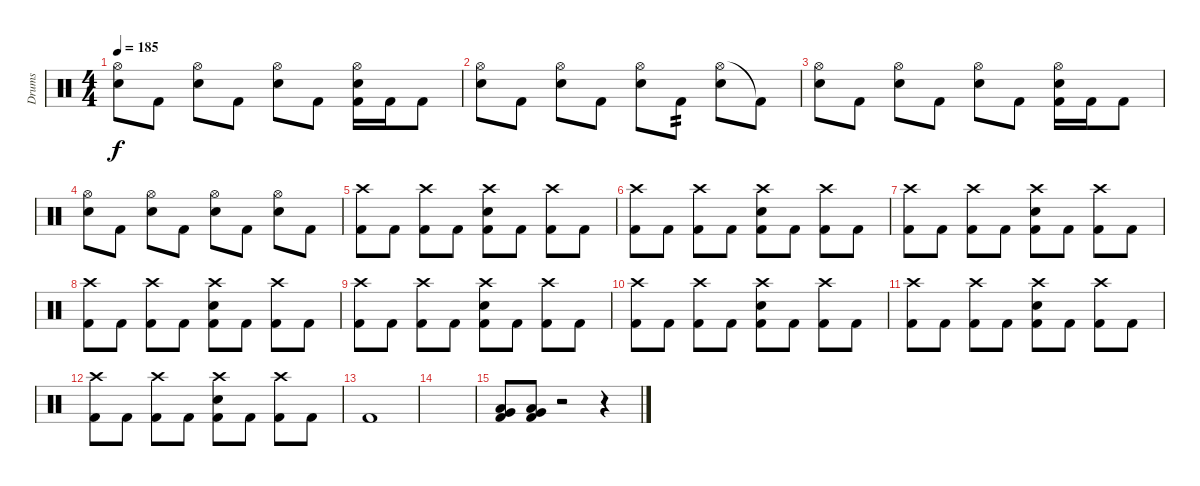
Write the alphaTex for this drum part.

\track ("Drums" "Drums") {instrument percussion}
\staff {score}
\articulation defaults
\ts (4 4)
\tempo 185
\clef neutral
\ks c
("Hi-Hat (open)" "Electric Snare (hit)").8{dy f} "Kick (hit) 2".8 ("Hi-Hat (open)" "Electric Snare (hit)").8 "Kick (hit) 2".8 ("Hi-Hat (open)" "Electric Snare (hit)").8 "Kick (hit) 2".8 ("Hi-Hat (open)" "Electric Snare (hit)" "Kick (hit) 2").16 "Kick (hit) 2".16 "Kick (hit) 2".8 |
("Hi-Hat (open)" "Electric Snare (hit)").8 "Kick (hit) 2".8 ("Hi-Hat (open)" "Electric Snare (hit)").8 "Kick (hit) 2".8 ("Hi-Hat (open)" "Electric Snare (hit)").8 "Kick (hit) 2".8{tp 2} ("Hi-Hat (open)" "Electric Snare (hit)").8 "Kick (hit) 2"{t}.8 |
("Hi-Hat (open)" "Electric Snare (hit)").8 "Kick (hit) 2".8 ("Hi-Hat (open)" "Electric Snare (hit)").8 "Kick (hit) 2".8 ("Hi-Hat (open)" "Electric Snare (hit)").8 "Kick (hit) 2".8 ("Hi-Hat (open)" "Electric Snare (hit)" "Kick (hit) 2").16 "Kick (hit) 2".16 "Kick (hit) 2".8 |
("Hi-Hat (open)" "Electric Snare (hit)").8 "Kick (hit) 2".8 ("Hi-Hat (open)" "Electric Snare (hit)").8 "Kick (hit) 2".8 ("Hi-Hat (open)" "Electric Snare (hit)").8 "Kick (hit) 2".8 ("Hi-Hat (open)" "Electric Snare (hit)").8 "Kick (hit) 2".8 |
("Crash high (hit)" "Kick (hit) 2").8 "Kick (hit) 2".8 ("Crash high (hit)" "Kick (hit) 2").8 "Kick (hit) 2".8 ("Crash high (hit)" "Electric Snare (hit)" "Kick (hit) 2").8 "Kick (hit) 2".8 ("Crash high (hit)" "Kick (hit) 2").8 "Kick (hit) 2".8 |
("Crash high (hit)" "Kick (hit) 2").8 "Kick (hit) 2".8 ("Crash high (hit)" "Kick (hit) 2").8 "Kick (hit) 2".8 ("Crash high (hit)" "Electric Snare (hit)" "Kick (hit) 2").8 "Kick (hit) 2".8 ("Crash high (hit)" "Kick (hit) 2").8 "Kick (hit) 2".8 |
("Crash high (hit)" "Kick (hit) 2").8 "Kick (hit) 2".8 ("Crash high (hit)" "Kick (hit) 2").8 "Kick (hit) 2".8 ("Crash high (hit)" "Electric Snare (hit)" "Kick (hit) 2").8 "Kick (hit) 2".8 ("Crash high (hit)" "Kick (hit) 2").8 "Kick (hit) 2".8 |
("Crash high (hit)" "Kick (hit) 2").8 "Kick (hit) 2".8 ("Crash high (hit)" "Kick (hit) 2").8 "Kick (hit) 2".8 ("Crash high (hit)" "Electric Snare (hit)" "Kick (hit) 2").8 "Kick (hit) 2".8 ("Crash high (hit)" "Kick (hit) 2").8 "Kick (hit) 2".8 |
("Crash high (hit)" "Kick (hit) 2").8 "Kick (hit) 2".8 ("Crash high (hit)" "Kick (hit) 2").8 "Kick (hit) 2".8 ("Crash high (hit)" "Electric Snare (hit)" "Kick (hit) 2").8 "Kick (hit) 2".8 ("Crash high (hit)" "Kick (hit) 2").8 "Kick (hit) 2".8 |
("Crash high (hit)" "Kick (hit) 2").8 "Kick (hit) 2".8 ("Crash high (hit)" "Kick (hit) 2").8 "Kick (hit) 2".8 ("Crash high (hit)" "Electric Snare (hit)" "Kick (hit) 2").8 "Kick (hit) 2".8 ("Crash high (hit)" "Kick (hit) 2").8 "Kick (hit) 2".8 |
("Crash high (hit)" "Kick (hit) 2").8 "Kick (hit) 2".8 ("Crash high (hit)" "Kick (hit) 2").8 "Kick (hit) 2".8 ("Crash high (hit)" "Electric Snare (hit)" "Kick (hit) 2").8 "Kick (hit) 2".8 ("Crash high (hit)" "Kick (hit) 2").8 "Kick (hit) 2".8 |
("Crash high (hit)" "Kick (hit) 2").8 "Kick (hit) 2".8 ("Crash high (hit)" "Kick (hit) 2").8 "Kick (hit) 2".8 ("Crash high (hit)" "Electric Snare (hit)" "Kick (hit) 2").8 "Kick (hit) 2".8 ("Crash high (hit)" "Kick (hit) 2").8 "Kick (hit) 2".8 |
"Kick (hit) 2".1 |
|
("Very Low Tom (hit)" "Low Tom (hit)" "Kick (hit) 2").8 ("Very Low Tom (hit)" "Low Tom (hit)" "Kick (hit) 2").8 r.2 r.4
